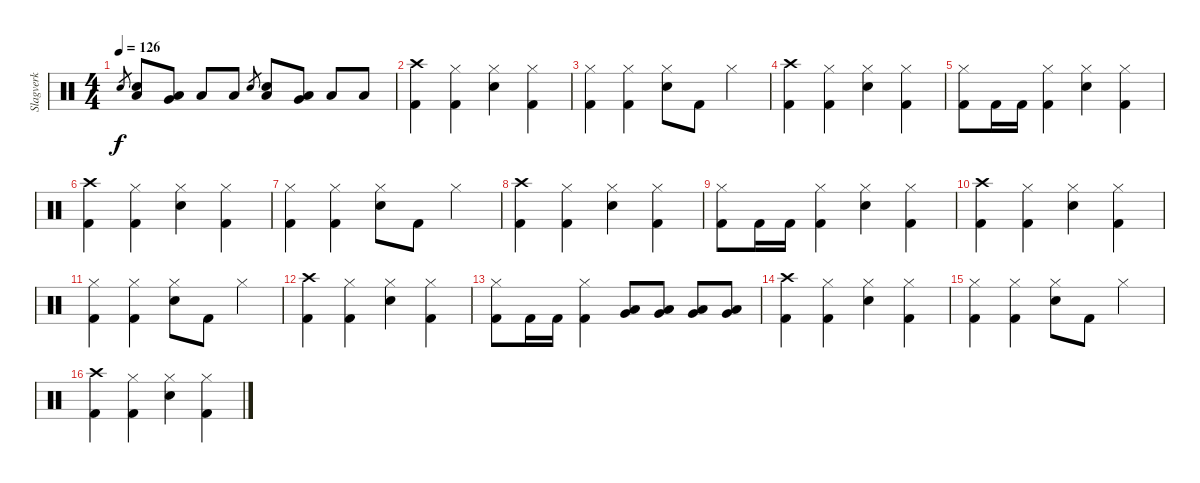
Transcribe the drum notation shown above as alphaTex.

\track ("Slagverk" "Slagverk") {instrument percussion}
\staff {score}
\articulation defaults
\ts (4 4)
\tempo 126
\clef neutral
\ks c "Electric Snare (hit)".8{gr dy f}
("Electric Snare (hit)" "Low Floor Tom (hit)").8 ("Low Floor Tom (hit)" "Very Low Tom (hit)").8 "Low Floor Tom (hit)".8 "Low Floor Tom (hit)".8 "Electric Snare (hit)".8{gr} ("Electric Snare (hit)" "Low Floor Tom (hit)").8 ("Low Floor Tom (hit)" "Very Low Tom (hit)").8 "Low Floor Tom (hit)".8 "Low Floor Tom (hit)".8 |
("Crash high (hit)" "Kick (hit) 2").4 ("Kick (hit) 2" "Hi-Hat (closed)").4 ("Electric Snare (hit)" "Hi-Hat (closed)").4 ("Hi-Hat (closed)" "Kick (hit) 2").4 |
("Kick (hit) 2" "Hi-Hat (closed)").4 ("Kick (hit) 2" "Hi-Hat (closed)").4 ("Electric Snare (hit)" "Hi-Hat (closed)").8 "Kick (hit) 2".8 "Hi-Hat (closed)".4 |
("Crash high (hit)" "Kick (hit) 2").4 ("Kick (hit) 2" "Hi-Hat (closed)").4 ("Electric Snare (hit)" "Hi-Hat (closed)").4 ("Hi-Hat (closed)" "Kick (hit) 2").4 |
("Kick (hit) 2" "Hi-Hat (closed)").8 "Kick (hit) 2".16 "Kick (hit) 2".16 ("Kick (hit) 2" "Hi-Hat (closed)").4 ("Electric Snare (hit)" "Hi-Hat (closed)").4 ("Hi-Hat (closed)" "Kick (hit) 2").4 |
("Crash high (hit)" "Kick (hit) 2").4 ("Kick (hit) 2" "Hi-Hat (closed)").4 ("Electric Snare (hit)" "Hi-Hat (closed)").4 ("Hi-Hat (closed)" "Kick (hit) 2").4 |
("Kick (hit) 2" "Hi-Hat (closed)").4 ("Kick (hit) 2" "Hi-Hat (closed)").4 ("Electric Snare (hit)" "Hi-Hat (closed)").8 "Kick (hit) 2".8 "Hi-Hat (closed)".4 |
("Crash high (hit)" "Kick (hit) 2").4 ("Kick (hit) 2" "Hi-Hat (closed)").4 ("Electric Snare (hit)" "Hi-Hat (closed)").4 ("Hi-Hat (closed)" "Kick (hit) 2").4 |
("Kick (hit) 2" "Hi-Hat (closed)").8 "Kick (hit) 2".16 "Kick (hit) 2".16 ("Kick (hit) 2" "Hi-Hat (closed)").4 ("Electric Snare (hit)" "Hi-Hat (closed)").4 ("Hi-Hat (closed)" "Kick (hit) 2").4 |
("Crash high (hit)" "Kick (hit) 2").4 ("Kick (hit) 2" "Hi-Hat (closed)").4 ("Electric Snare (hit)" "Hi-Hat (closed)").4 ("Hi-Hat (closed)" "Kick (hit) 2").4 |
("Kick (hit) 2" "Hi-Hat (closed)").4 ("Kick (hit) 2" "Hi-Hat (closed)").4 ("Electric Snare (hit)" "Hi-Hat (closed)").8 "Kick (hit) 2".8 "Hi-Hat (closed)".4 |
("Crash high (hit)" "Kick (hit) 2").4 ("Kick (hit) 2" "Hi-Hat (closed)").4 ("Electric Snare (hit)" "Hi-Hat (closed)").4 ("Hi-Hat (closed)" "Kick (hit) 2").4 |
("Kick (hit) 2" "Hi-Hat (closed)").8 "Kick (hit) 2".16 "Kick (hit) 2".16 ("Kick (hit) 2" "Hi-Hat (closed)").4 ("Low Floor Tom (hit)" "Very Low Tom (hit)").8 ("Low Floor Tom (hit)" "Very Low Tom (hit)").8 ("Very Low Tom (hit)" "Low Tom (hit)").8 ("Very Low Tom (hit)" "Low Tom (hit)").8 |
("Crash high (hit)" "Kick (hit) 2").4 ("Kick (hit) 2" "Hi-Hat (closed)").4 ("Electric Snare (hit)" "Hi-Hat (closed)").4 ("Hi-Hat (closed)" "Kick (hit) 2").4 |
("Kick (hit) 2" "Hi-Hat (closed)").4 ("Kick (hit) 2" "Hi-Hat (closed)").4 ("Electric Snare (hit)" "Hi-Hat (closed)").8 "Kick (hit) 2".8 "Hi-Hat (closed)".4 |
("Crash high (hit)" "Kick (hit) 2").4 ("Kick (hit) 2" "Hi-Hat (closed)").4 ("Electric Snare (hit)" "Hi-Hat (closed)").4 ("Hi-Hat (closed)" "Kick (hit) 2").4
